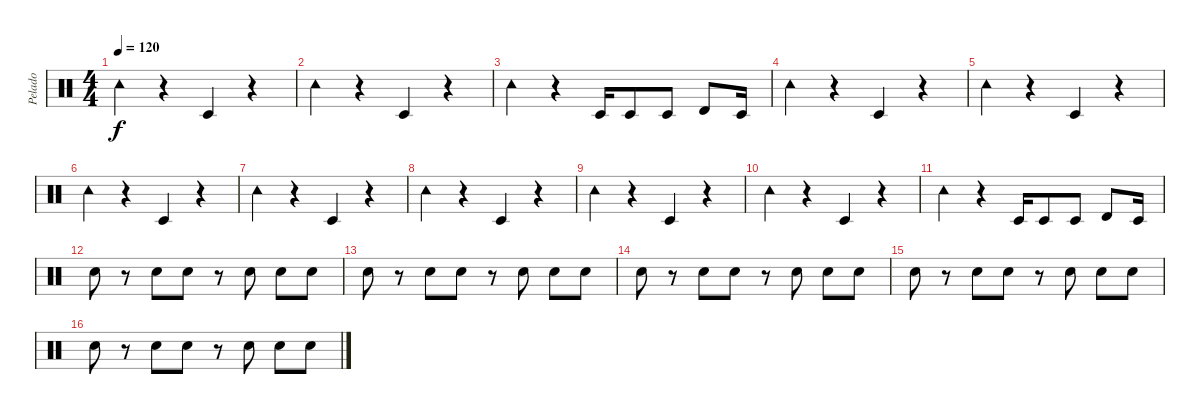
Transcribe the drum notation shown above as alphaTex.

\track ("Pelado" "Pelado") {instrument percussion}
\staff {score}
\articulation defaults
\ts (4 4)
\tempo 120
\clef neutral
\ks c "Tambourine (hit)".4{dy f}
r.4 "Timbale low (hit)".4 r.4 |
"Tambourine (hit)".4 r.4 "Timbale low (hit)".4 r.4 |
"Tambourine (hit)".4 r.4 "Timbale low (hit)".16 "Timbale low (hit)".8 "Timbale low (hit)".8 "Timbale high (hit)".8 "Timbale low (hit)".16 |
"Tambourine (hit)".4 r.4 "Timbale low (hit)".4 r.4 |
"Tambourine (hit)".4 r.4 "Timbale low (hit)".4 r.4 |
"Tambourine (hit)".4 r.4 "Timbale low (hit)".4 r.4 |
"Tambourine (hit)".4 r.4 "Timbale low (hit)".4 r.4 |
"Tambourine (hit)".4 r.4 "Timbale low (hit)".4 r.4 |
"Tambourine (hit)".4 r.4 "Timbale low (hit)".4 r.4 |
"Tambourine (hit)".4 r.4 "Timbale low (hit)".4 r.4 |
"Tambourine (hit)".4 r.4 "Timbale low (hit)".16 "Timbale low (hit)".8 "Timbale low (hit)".8 "Timbale high (hit)".8 "Timbale low (hit)".16 |
"Snare (hit) 2".8 r.8 "Electric Snare (hit)".8 "Electric Snare (hit)".8 r.8 "Snare (hit) 2".8 "Electric Snare (hit)".8 "Electric Snare (hit)".8 |
"Snare (hit) 2".8 r.8 "Electric Snare (hit)".8 "Electric Snare (hit)".8 r.8 "Snare (hit) 2".8 "Electric Snare (hit)".8 "Electric Snare (hit)".8 |
"Snare (hit) 2".8 r.8 "Electric Snare (hit)".8 "Electric Snare (hit)".8 r.8 "Snare (hit) 2".8 "Electric Snare (hit)".8 "Electric Snare (hit)".8 |
"Snare (hit) 2".8 r.8 "Electric Snare (hit)".8 "Electric Snare (hit)".8 r.8 "Snare (hit) 2".8 "Electric Snare (hit)".8 "Electric Snare (hit)".8 |
"Snare (hit) 2".8 r.8 "Electric Snare (hit)".8 "Electric Snare (hit)".8 r.8 "Snare (hit) 2".8 "Electric Snare (hit)".8 "Electric Snare (hit)".8
